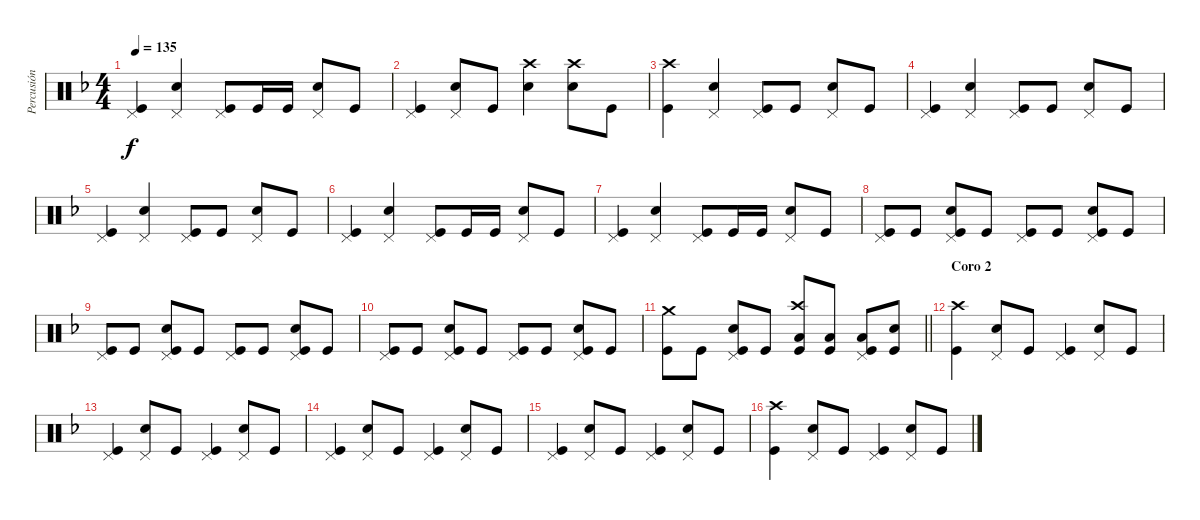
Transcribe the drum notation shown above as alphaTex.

\track ("Percusión" "Percusión") {instrument percussion}
\staff {score}
\articulation defaults
\ts (4 4)
\tempo 135
\clef neutral
\ks dminor
("Pedal Hi-Hat (hit)" "Kick (hit)").4{dy f} ("Pedal Hi-Hat (hit)" "Snare (hit) 2").4 ("Pedal Hi-Hat (hit)" "Kick (hit)").8 "Kick (hit)".16 "Kick (hit)".16 ("Pedal Hi-Hat (hit)" "Snare (hit) 2").8 "Kick (hit)".8 |
("Pedal Hi-Hat (hit)" "Kick (hit)").4 ("Pedal Hi-Hat (hit)" "Snare (hit) 2").8 "Kick (hit)".8 ("Crash high (hit)" "Snare (hit) 2").4 ("Crash high (hit)" "Snare (hit) 2").8 "Kick (hit)".8 |
("Crash high (hit)" "Kick (hit)").4 ("Pedal Hi-Hat (hit)" "Snare (hit) 2").4 ("Pedal Hi-Hat (hit)" "Kick (hit)").8 "Kick (hit)".8 ("Pedal Hi-Hat (hit)" "Snare (hit) 2").8 "Kick (hit)".8 |
("Pedal Hi-Hat (hit)" "Kick (hit)").4 ("Pedal Hi-Hat (hit)" "Snare (hit) 2").4 ("Pedal Hi-Hat (hit)" "Kick (hit)").8 "Kick (hit)".8 ("Pedal Hi-Hat (hit)" "Snare (hit) 2").8 "Kick (hit)".8 |
("Pedal Hi-Hat (hit)" "Kick (hit)").4 ("Pedal Hi-Hat (hit)" "Snare (hit) 2").4 ("Pedal Hi-Hat (hit)" "Kick (hit)").8 "Kick (hit)".8 ("Pedal Hi-Hat (hit)" "Snare (hit) 2").8 "Kick (hit)".8 |
("Pedal Hi-Hat (hit)" "Kick (hit)").4 ("Pedal Hi-Hat (hit)" "Snare (hit) 2").4 ("Pedal Hi-Hat (hit)" "Kick (hit)").8 "Kick (hit)".16 "Kick (hit)".16 ("Pedal Hi-Hat (hit)" "Snare (hit) 2").8 "Kick (hit)".8 |
("Pedal Hi-Hat (hit)" "Kick (hit)").4 ("Pedal Hi-Hat (hit)" "Snare (hit) 2").4 ("Pedal Hi-Hat (hit)" "Kick (hit)").8 "Kick (hit)".16 "Kick (hit)".16 ("Pedal Hi-Hat (hit)" "Snare (hit) 2").8 "Kick (hit)".8 |
("Pedal Hi-Hat (hit)" "Kick (hit)").8 "Kick (hit)".8 ("Pedal Hi-Hat (hit)" "Snare (hit) 2" "Kick (hit)").8 "Kick (hit)".8 ("Pedal Hi-Hat (hit)" "Kick (hit)").8 "Kick (hit)".8 ("Pedal Hi-Hat (hit)" "Snare (hit) 2" "Kick (hit)").8 "Kick (hit)".8 |
("Pedal Hi-Hat (hit)" "Kick (hit)").8 "Kick (hit)".8 ("Pedal Hi-Hat (hit)" "Snare (hit) 2" "Kick (hit)").8 "Kick (hit)".8 ("Pedal Hi-Hat (hit)" "Kick (hit)").8 "Kick (hit)".8 ("Pedal Hi-Hat (hit)" "Snare (hit) 2" "Kick (hit)").8 "Kick (hit)".8 |
("Pedal Hi-Hat (hit)" "Kick (hit)").8 "Kick (hit)".8 ("Pedal Hi-Hat (hit)" "Snare (hit) 2" "Kick (hit)").8 "Kick (hit)".8 ("Pedal Hi-Hat (hit)" "Kick (hit)").8 "Kick (hit)".8 ("Pedal Hi-Hat (hit)" "Snare (hit) 2" "Kick (hit)").8 "Kick (hit)".8 |
\barLineRight lightlight
("Crash medium (hit)" "Kick (hit)").8 "Kick (hit)".8 ("Pedal Hi-Hat (hit)" "Snare (hit) 2" "Kick (hit)").8 "Kick (hit)".8 ("Crash high (hit)" "Low Tom (hit)" "Kick (hit)").8 ("Low Tom (hit)" "Kick (hit)").8 ("Pedal Hi-Hat (hit)" "Low Tom (hit)" "Kick (hit)").8 ("Snare (hit) 2" "Kick (hit)").8 |
\section ("" "Coro 2")
("Crash high (hit)" "Kick (hit)").4 ("Pedal Hi-Hat (hit)" "Snare (hit) 2").8 "Kick (hit)".8 ("Pedal Hi-Hat (hit)" "Kick (hit)").4 ("Pedal Hi-Hat (hit)" "Snare (hit) 2").8 "Kick (hit)".8 |
("Pedal Hi-Hat (hit)" "Kick (hit)").4 ("Pedal Hi-Hat (hit)" "Snare (hit) 2").8 "Kick (hit)".8 ("Pedal Hi-Hat (hit)" "Kick (hit)").4 ("Pedal Hi-Hat (hit)" "Snare (hit) 2").8 "Kick (hit)".8 |
("Pedal Hi-Hat (hit)" "Kick (hit)").4 ("Pedal Hi-Hat (hit)" "Snare (hit) 2").8 "Kick (hit)".8 ("Pedal Hi-Hat (hit)" "Kick (hit)").4 ("Pedal Hi-Hat (hit)" "Snare (hit) 2").8 "Kick (hit)".8 |
("Pedal Hi-Hat (hit)" "Kick (hit)").4 ("Pedal Hi-Hat (hit)" "Snare (hit) 2").8 "Kick (hit)".8 ("Pedal Hi-Hat (hit)" "Kick (hit)").4 ("Pedal Hi-Hat (hit)" "Snare (hit) 2").8 "Kick (hit)".8 |
("Crash high (hit)" "Kick (hit)").4 ("Pedal Hi-Hat (hit)" "Snare (hit) 2").8 "Kick (hit)".8 ("Pedal Hi-Hat (hit)" "Kick (hit)").4 ("Pedal Hi-Hat (hit)" "Snare (hit) 2").8 "Kick (hit)".8
